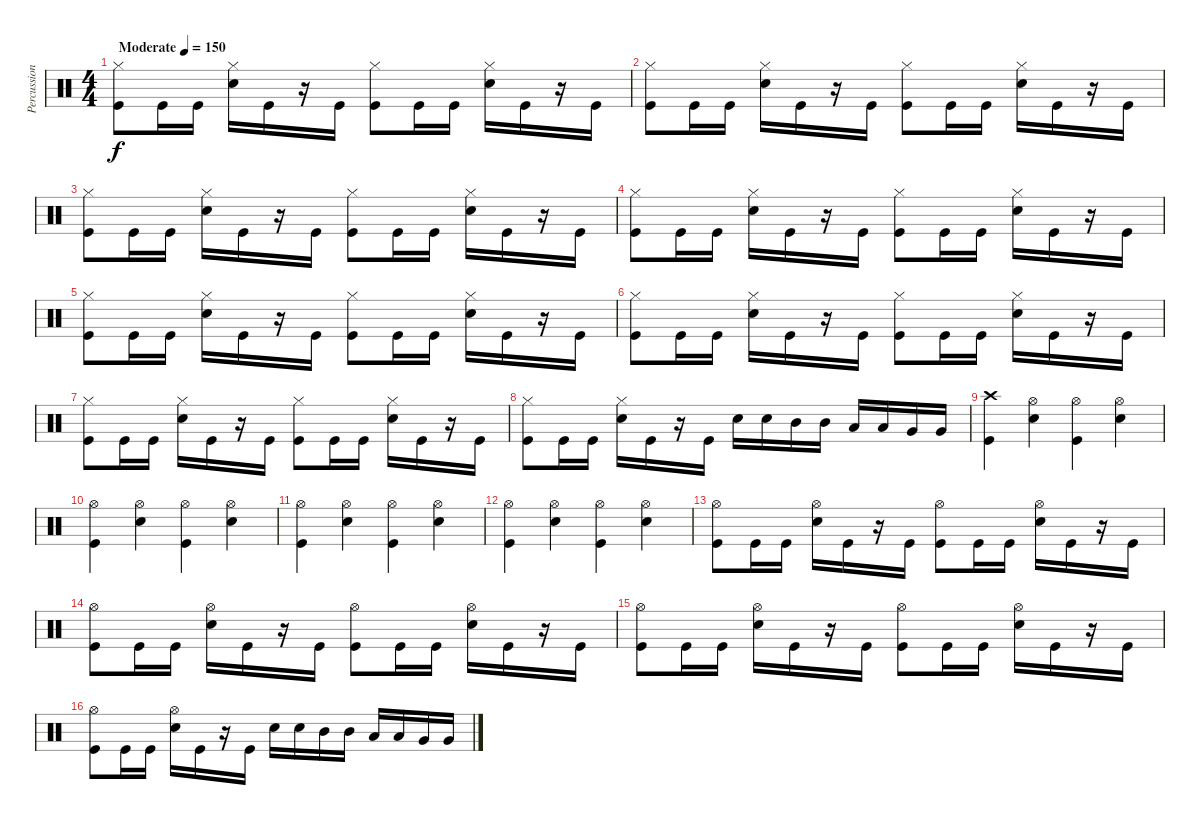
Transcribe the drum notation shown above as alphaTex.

\track ("Percussions" "Percussion") {instrument percussion}
\staff {score}
\articulation defaults
\ts (4 4)
\tempo (150 "Moderate")
\clef neutral
\ks c
("Hi-Hat (closed)" "Kick (hit)").8{dy f} "Kick (hit)".16 "Kick (hit)".16 ("Hi-Hat (closed)" "Electric Snare (hit)").16 "Kick (hit)".16 r.16 "Kick (hit)".16 ("Hi-Hat (closed)" "Kick (hit)").8 "Kick (hit)".16 "Kick (hit)".16 ("Hi-Hat (closed)" "Electric Snare (hit)").16 "Kick (hit)".16 r.16 "Kick (hit)".16 |
("Hi-Hat (closed)" "Kick (hit)").8 "Kick (hit)".16 "Kick (hit)".16 ("Hi-Hat (closed)" "Electric Snare (hit)").16 "Kick (hit)".16 r.16 "Kick (hit)".16 ("Hi-Hat (closed)" "Kick (hit)").8 "Kick (hit)".16 "Kick (hit)".16 ("Hi-Hat (closed)" "Electric Snare (hit)").16 "Kick (hit)".16 r.16 "Kick (hit)".16 |
("Hi-Hat (closed)" "Kick (hit)").8 "Kick (hit)".16 "Kick (hit)".16 ("Hi-Hat (closed)" "Electric Snare (hit)").16 "Kick (hit)".16 r.16 "Kick (hit)".16 ("Hi-Hat (closed)" "Kick (hit)").8 "Kick (hit)".16 "Kick (hit)".16 ("Hi-Hat (closed)" "Electric Snare (hit)").16 "Kick (hit)".16 r.16 "Kick (hit)".16 |
("Hi-Hat (closed)" "Kick (hit)").8 "Kick (hit)".16 "Kick (hit)".16 ("Hi-Hat (closed)" "Electric Snare (hit)").16 "Kick (hit)".16 r.16 "Kick (hit)".16 ("Hi-Hat (closed)" "Kick (hit)").8 "Kick (hit)".16 "Kick (hit)".16 ("Hi-Hat (closed)" "Electric Snare (hit)").16 "Kick (hit)".16 r.16 "Kick (hit)".16 |
("Hi-Hat (closed)" "Kick (hit)").8 "Kick (hit)".16 "Kick (hit)".16 ("Hi-Hat (closed)" "Electric Snare (hit)").16 "Kick (hit)".16 r.16 "Kick (hit)".16 ("Hi-Hat (closed)" "Kick (hit)").8 "Kick (hit)".16 "Kick (hit)".16 ("Hi-Hat (closed)" "Electric Snare (hit)").16 "Kick (hit)".16 r.16 "Kick (hit)".16 |
("Hi-Hat (closed)" "Kick (hit)").8 "Kick (hit)".16 "Kick (hit)".16 ("Hi-Hat (closed)" "Electric Snare (hit)").16 "Kick (hit)".16 r.16 "Kick (hit)".16 ("Hi-Hat (closed)" "Kick (hit)").8 "Kick (hit)".16 "Kick (hit)".16 ("Hi-Hat (closed)" "Electric Snare (hit)").16 "Kick (hit)".16 r.16 "Kick (hit)".16 |
("Hi-Hat (closed)" "Kick (hit)").8 "Kick (hit)".16 "Kick (hit)".16 ("Hi-Hat (closed)" "Electric Snare (hit)").16 "Kick (hit)".16 r.16 "Kick (hit)".16 ("Hi-Hat (closed)" "Kick (hit)").8 "Kick (hit)".16 "Kick (hit)".16 ("Hi-Hat (closed)" "Electric Snare (hit)").16 "Kick (hit)".16 r.16 "Kick (hit)".16 |
("Hi-Hat (closed)" "Kick (hit)").8 "Kick (hit)".16 "Kick (hit)".16 ("Hi-Hat (closed)" "Electric Snare (hit)").16 "Kick (hit)".16 r.16 "Kick (hit)".16 "Electric Snare (hit)".16 "Electric Snare (hit)".16 "Mid Tom (hit)".16 "Mid Tom (hit)".16 "Low Tom (hit)".16 "Low Tom (hit)".16 "Very Low Tom (hit)".16 "Very Low Tom (hit)".16 |
("Crash high (hit)" "Kick (hit)").4 ("Hi-Hat (open)" "Electric Snare (hit)").4 ("Hi-Hat (open)" "Kick (hit)").4 ("Hi-Hat (open)" "Electric Snare (hit)").4 |
("Hi-Hat (open)" "Kick (hit)").4 ("Hi-Hat (open)" "Electric Snare (hit)").4 ("Hi-Hat (open)" "Kick (hit)").4 ("Hi-Hat (open)" "Electric Snare (hit)").4 |
("Hi-Hat (open)" "Kick (hit)").4 ("Hi-Hat (open)" "Electric Snare (hit)").4 ("Hi-Hat (open)" "Kick (hit)").4 ("Hi-Hat (open)" "Electric Snare (hit)").4 |
("Hi-Hat (open)" "Kick (hit)").4 ("Hi-Hat (open)" "Electric Snare (hit)").4 ("Hi-Hat (open)" "Kick (hit)").4 ("Hi-Hat (open)" "Electric Snare (hit)").4 |
("Hi-Hat (open)" "Kick (hit)").8 "Kick (hit)".16 "Kick (hit)".16 ("Hi-Hat (open)" "Electric Snare (hit)").16 "Kick (hit)".16 r.16 "Kick (hit)".16 ("Hi-Hat (open)" "Kick (hit)").8 "Kick (hit)".16 "Kick (hit)".16 ("Hi-Hat (open)" "Electric Snare (hit)").16 "Kick (hit)".16 r.16 "Kick (hit)".16 |
("Hi-Hat (open)" "Kick (hit)").8 "Kick (hit)".16 "Kick (hit)".16 ("Hi-Hat (open)" "Electric Snare (hit)").16 "Kick (hit)".16 r.16 "Kick (hit)".16 ("Hi-Hat (open)" "Kick (hit)").8 "Kick (hit)".16 "Kick (hit)".16 ("Hi-Hat (open)" "Electric Snare (hit)").16 "Kick (hit)".16 r.16 "Kick (hit)".16 |
("Hi-Hat (open)" "Kick (hit)").8 "Kick (hit)".16 "Kick (hit)".16 ("Hi-Hat (open)" "Electric Snare (hit)").16 "Kick (hit)".16 r.16 "Kick (hit)".16 ("Hi-Hat (open)" "Kick (hit)").8 "Kick (hit)".16 "Kick (hit)".16 ("Hi-Hat (open)" "Electric Snare (hit)").16 "Kick (hit)".16 r.16 "Kick (hit)".16 |
("Hi-Hat (open)" "Kick (hit)").8 "Kick (hit)".16 "Kick (hit)".16 ("Hi-Hat (open)" "Electric Snare (hit)").16 "Kick (hit)".16 r.16 "Kick (hit)".16 "Electric Snare (hit)".16 "Electric Snare (hit)".16 "Mid Tom (hit)".16 "Mid Tom (hit)".16 "Low Tom (hit)".16 "Low Tom (hit)".16 "Very Low Tom (hit)".16 "Very Low Tom (hit)".16
